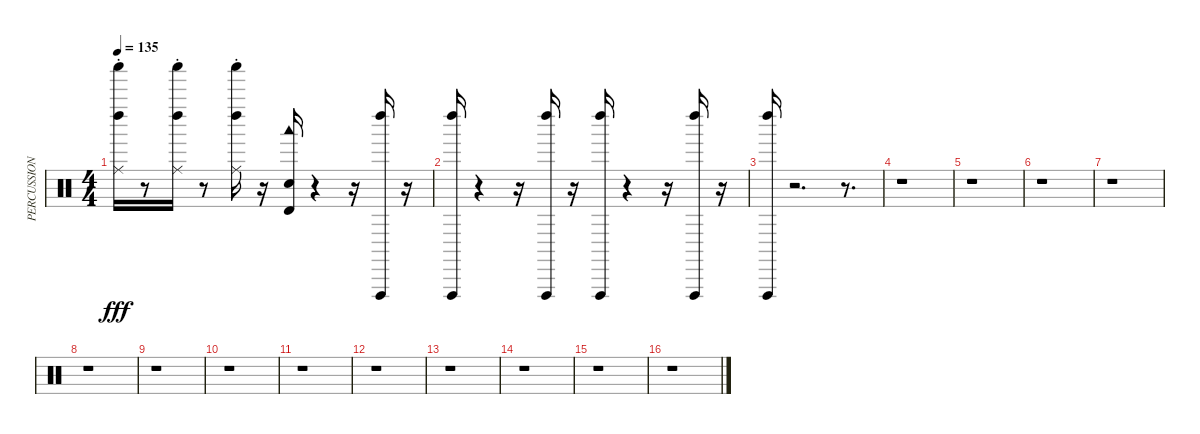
\track ("PERCUSSION" "PERCUSSION") {instrument percussion}
\staff {score}
\articulation defaults
\ts (4 4)
\tempo 135
\clef neutral
\ks c
("Left Maraca (hit)" "Shaker (hit)" "Ride (choke)").16{dy fff volume 12} r.8 ("Left Maraca (hit)" "Shaker (hit)" "Ride (choke)").16 r.8 ("Left Maraca (hit)" "Shaker (hit)" "Ride (choke)").16 r.16 ("Timbale high (hit)" "Woodblock low (hit)" "Snare (hit)").16 r.4 r.16 ("Vibraslap (hit)" "Left Maraca (hit)").16{volume 11} r.16 |
("Vibraslap (hit)" "Left Maraca (hit)").16 r.4 r.16 ("Left Maraca (hit)" "Vibraslap (hit)").16 r.16 ("Vibraslap (hit)" "Left Maraca (hit)").16 r.4 r.16 ("Vibraslap (hit)" "Left Maraca (hit)").16 r.16 |
("Vibraslap (hit)" "Left Maraca (hit)").16 r.2{d} r.8{d} |
r.1 |
r.1 |
r.1 |
r.1 |
r.1 |
r.1 |
r.1 |
r.1 |
r.1 |
r.1 |
r.1 |
r.1 |
r.1
